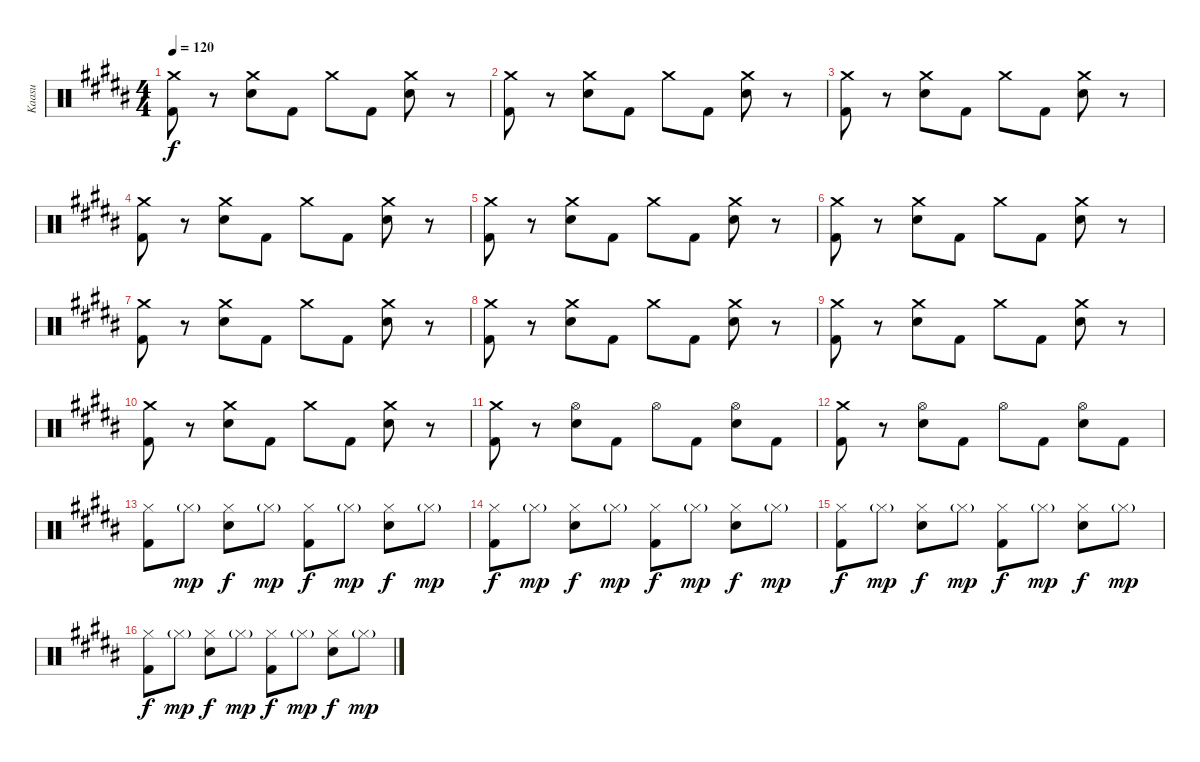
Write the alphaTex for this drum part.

\track ("Kaasu" "Kaasu") {instrument percussion}
\staff {score}
\articulation defaults
\ts (4 4)
\tempo 120
\clef neutral
\ks b
("Crash medium (hit)" "Kick (hit) 2").8{dy f volume 13} r.8 ("Crash medium (hit)" "Snare (hit) 2").8 "Kick (hit) 2".8 "Crash medium (hit)".8 "Kick (hit) 2".8 ("Crash medium (hit)" "Snare (hit) 2").8 r.8 |
("Crash medium (hit)" "Kick (hit) 2").8{volume 13} r.8 ("Crash medium (hit)" "Snare (hit) 2").8 "Kick (hit) 2".8 "Crash medium (hit)".8 "Kick (hit) 2".8 ("Crash medium (hit)" "Snare (hit) 2").8 r.8 |
("Crash medium (hit)" "Kick (hit) 2").8{volume 13} r.8 ("Crash medium (hit)" "Snare (hit) 2").8 "Kick (hit) 2".8 "Crash medium (hit)".8 "Kick (hit) 2".8 ("Crash medium (hit)" "Snare (hit) 2").8 r.8 |
("Crash medium (hit)" "Kick (hit) 2").8{volume 13} r.8 ("Crash medium (hit)" "Snare (hit) 2").8 "Kick (hit) 2".8 "Crash medium (hit)".8 "Kick (hit) 2".8 ("Crash medium (hit)" "Snare (hit) 2").8 r.8 |
("Crash medium (hit)" "Kick (hit) 2").8{volume 13} r.8 ("Crash medium (hit)" "Snare (hit) 2").8 "Kick (hit) 2".8 "Crash medium (hit)".8 "Kick (hit) 2".8 ("Crash medium (hit)" "Snare (hit) 2").8 r.8 |
("Crash medium (hit)" "Kick (hit) 2").8{volume 13} r.8 ("Crash medium (hit)" "Snare (hit) 2").8 "Kick (hit) 2".8 "Crash medium (hit)".8 "Kick (hit) 2".8 ("Crash medium (hit)" "Snare (hit) 2").8 r.8 |
("Crash medium (hit)" "Kick (hit) 2").8{volume 13} r.8 ("Crash medium (hit)" "Snare (hit) 2").8 "Kick (hit) 2".8 "Crash medium (hit)".8 "Kick (hit) 2".8 ("Crash medium (hit)" "Snare (hit) 2").8 r.8 |
("Crash medium (hit)" "Kick (hit) 2").8{volume 13} r.8 ("Crash medium (hit)" "Snare (hit) 2").8 "Kick (hit) 2".8 "Crash medium (hit)".8 "Kick (hit) 2".8 ("Crash medium (hit)" "Snare (hit) 2").8 r.8 |
("Crash medium (hit)" "Kick (hit) 2").8{volume 13} r.8 ("Crash medium (hit)" "Snare (hit) 2").8 "Kick (hit) 2".8 "Crash medium (hit)".8 "Kick (hit) 2".8 ("Crash medium (hit)" "Snare (hit) 2").8 r.8 |
("Crash medium (hit)" "Kick (hit) 2").8{volume 13} r.8 ("Crash medium (hit)" "Snare (hit) 2").8 "Kick (hit) 2".8 "Crash medium (hit)".8 "Kick (hit) 2".8 ("Crash medium (hit)" "Snare (hit) 2").8 r.8 |
("Crash medium (hit)" "Kick (hit) 2").8 r.8 ("Hi-Hat (open)" "Snare (hit) 2").8 "Kick (hit) 2".8 "Hi-Hat (open)".8 "Kick (hit) 2".8 ("Hi-Hat (open)" "Snare (hit) 2").8 "Kick (hit) 2".8 |
("Crash medium (hit)" "Kick (hit) 2").8 r.8 ("Hi-Hat (open)" "Snare (hit) 2").8 "Kick (hit) 2".8 "Hi-Hat (open)".8 "Kick (hit) 2".8 ("Hi-Hat (open)" "Snare (hit) 2").8 "Kick (hit) 2".8 |
("Hi-Hat (closed)" "Kick (hit) 2").8 "Hi-Hat (closed)"{g}.8{dy mp} ("Hi-Hat (closed)" "Snare (hit) 2").8{dy f} "Hi-Hat (closed)"{g}.8{dy mp} ("Hi-Hat (closed)" "Kick (hit) 2").8{dy f} "Hi-Hat (closed)"{g}.8{dy mp} ("Hi-Hat (closed)" "Snare (hit) 2").8{dy f} "Hi-Hat (closed)"{g}.8{dy mp} |
("Hi-Hat (closed)" "Kick (hit) 2").8{dy f} "Hi-Hat (closed)"{g}.8{dy mp} ("Hi-Hat (closed)" "Snare (hit) 2").8{dy f} "Hi-Hat (closed)"{g}.8{dy mp} ("Hi-Hat (closed)" "Kick (hit) 2").8{dy f} "Hi-Hat (closed)"{g}.8{dy mp} ("Hi-Hat (closed)" "Snare (hit) 2").8{dy f} "Hi-Hat (closed)"{g}.8{dy mp} |
("Hi-Hat (closed)" "Kick (hit) 2").8{dy f} "Hi-Hat (closed)"{g}.8{dy mp} ("Hi-Hat (closed)" "Snare (hit) 2").8{dy f} "Hi-Hat (closed)"{g}.8{dy mp} ("Hi-Hat (closed)" "Kick (hit) 2").8{dy f} "Hi-Hat (closed)"{g}.8{dy mp} ("Hi-Hat (closed)" "Snare (hit) 2").8{dy f} "Hi-Hat (closed)"{g}.8{dy mp} |
("Hi-Hat (closed)" "Kick (hit) 2").8{dy f} "Hi-Hat (closed)"{g}.8{dy mp} ("Hi-Hat (closed)" "Snare (hit) 2").8{dy f} "Hi-Hat (closed)"{g}.8{dy mp} ("Hi-Hat (closed)" "Kick (hit) 2").8{dy f} "Hi-Hat (closed)"{g}.8{dy mp} ("Hi-Hat (closed)" "Snare (hit) 2").8{dy f} "Hi-Hat (closed)"{g}.8{dy mp}
